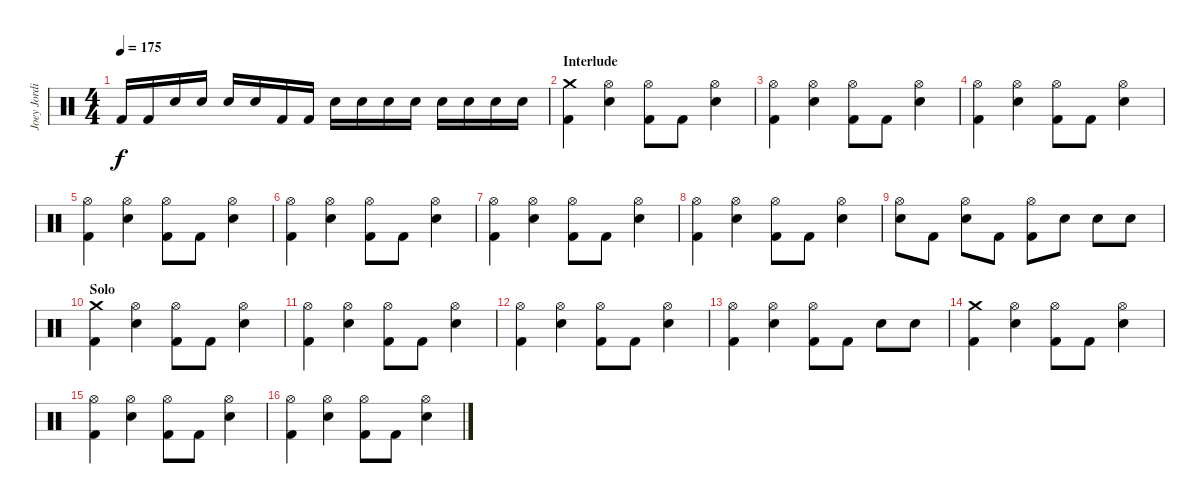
\track ("Joey Jordison (Drums)" "Joey Jordi") {instrument percussion}
\staff {score}
\articulation defaults
\ts (4 4)
\tempo 175
\clef neutral
\ks c "Kick (hit) 2".16{dy f} "Kick (hit) 2".16 "Electric Snare (hit)".16 "Electric Snare (hit)".16 "Electric Snare (hit)".16 "Electric Snare (hit)".16 "Kick (hit) 2".16 "Kick (hit) 2".16 "Electric Snare (hit)".16 "Electric Snare (hit)".16 "Electric Snare (hit)".16 "Electric Snare (hit)".16 "Electric Snare (hit)".16 "Electric Snare (hit)".16 "Electric Snare (hit)".16 "Electric Snare (hit)".16
|
\section ("" "Interlude")
("Crash medium (hit)" "Kick (hit) 2").4 ("Hi-Hat (open)" "Electric Snare (hit)").4 ("Hi-Hat (open)" "Kick (hit) 2").8 "Kick (hit) 2".8 ("Hi-Hat (open)" "Electric Snare (hit)").4 |
("Hi-Hat (open)" "Kick (hit) 2").4 ("Hi-Hat (open)" "Electric Snare (hit)").4 ("Hi-Hat (open)" "Kick (hit) 2").8 "Kick (hit) 2".8 ("Hi-Hat (open)" "Electric Snare (hit)").4 |
("Hi-Hat (open)" "Kick (hit) 2").4 ("Hi-Hat (open)" "Electric Snare (hit)").4 ("Hi-Hat (open)" "Kick (hit) 2").8 "Kick (hit) 2".8 ("Hi-Hat (open)" "Electric Snare (hit)").4 |
("Hi-Hat (open)" "Kick (hit) 2").4 ("Hi-Hat (open)" "Electric Snare (hit)").4 ("Hi-Hat (open)" "Kick (hit) 2").8 "Kick (hit) 2".8 ("Hi-Hat (open)" "Electric Snare (hit)").4 |
("Hi-Hat (open)" "Kick (hit) 2").4 ("Hi-Hat (open)" "Electric Snare (hit)").4 ("Hi-Hat (open)" "Kick (hit) 2").8 "Kick (hit) 2".8 ("Hi-Hat (open)" "Electric Snare (hit)").4 |
("Hi-Hat (open)" "Kick (hit) 2").4 ("Hi-Hat (open)" "Electric Snare (hit)").4 ("Hi-Hat (open)" "Kick (hit) 2").8 "Kick (hit) 2".8 ("Hi-Hat (open)" "Electric Snare (hit)").4 |
("Hi-Hat (open)" "Kick (hit) 2").4 ("Hi-Hat (open)" "Electric Snare (hit)").4 ("Hi-Hat (open)" "Kick (hit) 2").8 "Kick (hit) 2".8 ("Hi-Hat (open)" "Electric Snare (hit)").4 |
("Hi-Hat (open)" "Electric Snare (hit)").8 "Kick (hit) 2".8 ("Hi-Hat (open)" "Electric Snare (hit)").8 "Kick (hit) 2".8 ("Hi-Hat (open)" "Kick (hit) 2").8 "Electric Snare (hit)".8 "Electric Snare (hit)".8 "Electric Snare (hit)".8 |
\section ("" "Solo")
("Crash medium (hit)" "Kick (hit) 2").4 ("Hi-Hat (open)" "Electric Snare (hit)").4 ("Hi-Hat (open)" "Kick (hit) 2").8 "Kick (hit) 2".8 ("Hi-Hat (open)" "Electric Snare (hit)").4 |
("Hi-Hat (open)" "Kick (hit) 2").4 ("Hi-Hat (open)" "Electric Snare (hit)").4 ("Hi-Hat (open)" "Kick (hit) 2").8 "Kick (hit) 2".8 ("Hi-Hat (open)" "Electric Snare (hit)").4 |
("Hi-Hat (open)" "Kick (hit) 2").4 ("Hi-Hat (open)" "Electric Snare (hit)").4 ("Hi-Hat (open)" "Kick (hit) 2").8 "Kick (hit) 2".8 ("Hi-Hat (open)" "Electric Snare (hit)").4 |
("Hi-Hat (open)" "Kick (hit) 2").4 ("Hi-Hat (open)" "Electric Snare (hit)").4 ("Hi-Hat (open)" "Kick (hit) 2").8 "Kick (hit) 2".8 "Electric Snare (hit)".8 "Electric Snare (hit)".8 |
("Crash medium (hit)" "Kick (hit) 2").4 ("Hi-Hat (open)" "Electric Snare (hit)").4 ("Hi-Hat (open)" "Kick (hit) 2").8 "Kick (hit) 2".8 ("Hi-Hat (open)" "Electric Snare (hit)").4 |
("Hi-Hat (open)" "Kick (hit) 2").4 ("Hi-Hat (open)" "Electric Snare (hit)").4 ("Hi-Hat (open)" "Kick (hit) 2").8 "Kick (hit) 2".8 ("Hi-Hat (open)" "Electric Snare (hit)").4 |
("Hi-Hat (open)" "Kick (hit) 2").4 ("Hi-Hat (open)" "Electric Snare (hit)").4 ("Hi-Hat (open)" "Kick (hit) 2").8 "Kick (hit) 2".8 ("Hi-Hat (open)" "Electric Snare (hit)").4
